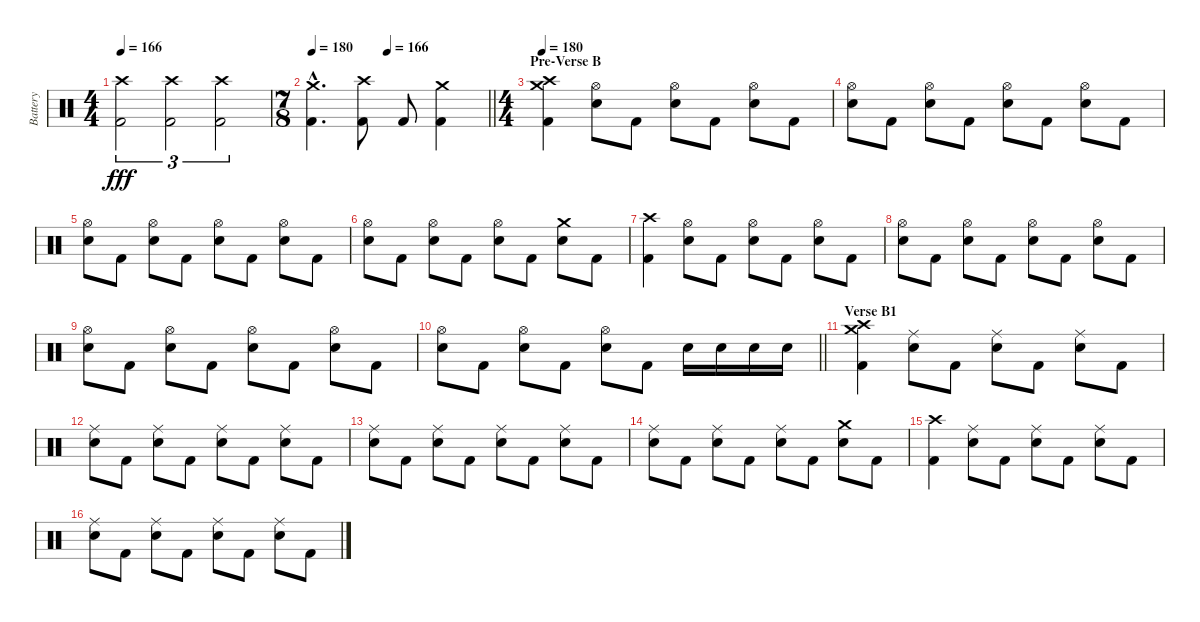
\track ("Battery" "Battery") {instrument percussion}
\staff {score}
\articulation defaults
\ts (4 4)
\tempo 166
\clef neutral
\ks c
("Crash high (hit)" "Kick (hit) 2").2{tu (3 2) dy fff} ("Crash high (hit)" "Kick (hit) 2").2{tu (3 2)} ("Crash high (hit)" "Kick (hit) 2").2{tu (3 2)} |
\ts (7 8)
\tempo 180
\tempo (166 0.42857142857142855)
\barLineRight lightlight
("Crash medium (hit)"{hac} "Kick (hit) 2"{hac}).4{d} ("Crash high (hit)" "Kick (hit) 2").8 "Kick (hit) 2".8 ("Crash medium (hit)" "Kick (hit) 2").4 |
\ts (4 4)
\section ("" "Pre-Verse B")
\tempo 180
("Crash high (hit)" "Crash medium (hit)" "Kick (hit) 2").4 ("Hi-Hat (open)" "Electric Snare (hit)").8 "Kick (hit) 2".8 ("Hi-Hat (open)" "Electric Snare (hit)").8 "Kick (hit) 2".8 ("Hi-Hat (open)" "Electric Snare (hit)").8 "Kick (hit) 2".8 |
("Hi-Hat (open)" "Electric Snare (hit)").8 "Kick (hit) 2".8 ("Hi-Hat (open)" "Electric Snare (hit)").8 "Kick (hit) 2".8 ("Hi-Hat (open)" "Electric Snare (hit)").8 "Kick (hit) 2".8 ("Hi-Hat (open)" "Electric Snare (hit)").8 "Kick (hit) 2".8 |
("Hi-Hat (open)" "Electric Snare (hit)").8 "Kick (hit) 2".8 ("Hi-Hat (open)" "Electric Snare (hit)").8 "Kick (hit) 2".8 ("Hi-Hat (open)" "Electric Snare (hit)").8 "Kick (hit) 2".8 ("Hi-Hat (open)" "Electric Snare (hit)").8 "Kick (hit) 2".8 |
("Hi-Hat (open)" "Electric Snare (hit)").8 "Kick (hit) 2".8 ("Hi-Hat (open)" "Electric Snare (hit)").8 "Kick (hit) 2".8 ("Hi-Hat (open)" "Electric Snare (hit)").8 "Kick (hit) 2".8 ("Crash medium (hit)" "Electric Snare (hit)").8 "Kick (hit) 2".8 |
("Crash high (hit)" "Kick (hit) 2").4 ("Hi-Hat (open)" "Electric Snare (hit)").8 "Kick (hit) 2".8 ("Hi-Hat (open)" "Electric Snare (hit)").8 "Kick (hit) 2".8 ("Hi-Hat (open)" "Electric Snare (hit)").8 "Kick (hit) 2".8 |
("Hi-Hat (open)" "Electric Snare (hit)").8 "Kick (hit) 2".8 ("Hi-Hat (open)" "Electric Snare (hit)").8 "Kick (hit) 2".8 ("Hi-Hat (open)" "Electric Snare (hit)").8 "Kick (hit) 2".8 ("Hi-Hat (open)" "Electric Snare (hit)").8 "Kick (hit) 2".8 |
("Hi-Hat (open)" "Electric Snare (hit)").8 "Kick (hit) 2".8 ("Hi-Hat (open)" "Electric Snare (hit)").8 "Kick (hit) 2".8 ("Hi-Hat (open)" "Electric Snare (hit)").8 "Kick (hit) 2".8 ("Hi-Hat (open)" "Electric Snare (hit)").8 "Kick (hit) 2".8 |
\barLineRight lightlight
("Hi-Hat (open)" "Electric Snare (hit)").8 "Kick (hit) 2".8 ("Hi-Hat (open)" "Electric Snare (hit)").8 "Kick (hit) 2".8 ("Hi-Hat (open)" "Electric Snare (hit)").8 "Kick (hit) 2".8 "Electric Snare (hit)".16 "Electric Snare (hit)".16 "Electric Snare (hit)".16 "Electric Snare (hit)".16 |
\section ("" "Verse B1")
("Crash high (hit)" "Crash medium (hit)" "Kick (hit) 2").4 ("Ride (middle)" "Electric Snare (hit)").8 "Kick (hit) 2".8 ("Ride (middle)" "Electric Snare (hit)").8 "Kick (hit) 2".8 ("Ride (middle)" "Electric Snare (hit)").8 "Kick (hit) 2".8 |
("Ride (middle)" "Electric Snare (hit)").8 "Kick (hit) 2".8 ("Ride (middle)" "Electric Snare (hit)").8 "Kick (hit) 2".8 ("Ride (middle)" "Electric Snare (hit)").8 "Kick (hit) 2".8 ("Ride (middle)" "Electric Snare (hit)").8 "Kick (hit) 2".8 |
("Ride (middle)" "Electric Snare (hit)").8 "Kick (hit) 2".8 ("Ride (middle)" "Electric Snare (hit)").8 "Kick (hit) 2".8 ("Ride (middle)" "Electric Snare (hit)").8 "Kick (hit) 2".8 ("Ride (middle)" "Electric Snare (hit)").8 "Kick (hit) 2".8 |
("Ride (middle)" "Electric Snare (hit)").8 "Kick (hit) 2".8 ("Ride (middle)" "Electric Snare (hit)").8 "Kick (hit) 2".8 ("Ride (middle)" "Electric Snare (hit)").8 "Kick (hit) 2".8 ("Crash medium (hit)" "Electric Snare (hit)").8 "Kick (hit) 2".8 |
("Crash high (hit)" "Kick (hit) 2").4 ("Ride (middle)" "Electric Snare (hit)").8 "Kick (hit) 2".8 ("Ride (middle)" "Electric Snare (hit)").8 "Kick (hit) 2".8 ("Ride (middle)" "Electric Snare (hit)").8 "Kick (hit) 2".8 |
("Ride (middle)" "Electric Snare (hit)").8 "Kick (hit) 2".8 ("Ride (middle)" "Electric Snare (hit)").8 "Kick (hit) 2".8 ("Ride (middle)" "Electric Snare (hit)").8 "Kick (hit) 2".8 ("Ride (middle)" "Electric Snare (hit)").8 "Kick (hit) 2".8
